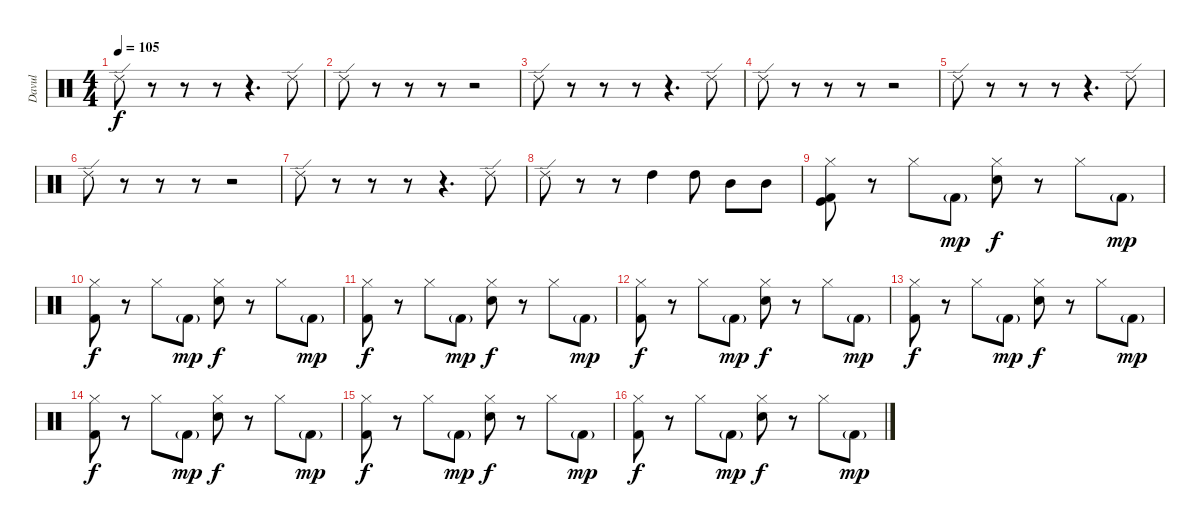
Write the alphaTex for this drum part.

\track ("Davul" "Davul") {instrument percussion}
\staff {score}
\articulation defaults
\ts (4 4)
\tempo 105
\clef neutral
\ks c "Ride (edge) 2".8{dy f}
r.8 r.8 r.8 r.4{d} "Ride (edge) 2".8 |
"Ride (edge) 2".8 r.8 r.8 r.8 r.2 |
"Ride (edge) 2".8 r.8 r.8 r.8 r.4{d} "Ride (edge) 2".8 |
"Ride (edge) 2".8 r.8 r.8 r.8 r.2 |
"Ride (edge) 2".8 r.8 r.8 r.8 r.4{d} "Ride (edge) 2".8 |
"Ride (edge) 2".8 r.8 r.8 r.8 r.2 |
"Ride (edge) 2".8 r.8 r.8 r.8 r.4{d} "Ride (edge) 2".8 |
"Ride (edge) 2".8 r.8 r.8 "High Tom (hit)".4 "High Tom (hit)".8 "Mid Tom (hit)".8 "Mid Tom (hit)".8 |
("Hi-Hat (closed)" "Kick (hit)" "Kick (hit) 2").8 r.8 "Hi-Hat (closed)".8 "Kick (hit) 2"{g}.8{dy mp} ("Hi-Hat (closed)" "Electric Snare (hit)").8{dy f} r.8 "Hi-Hat (closed)".8 "Kick (hit) 2"{g}.8{dy mp} |
("Hi-Hat (closed)" "Kick (hit) 2").8{dy f} r.8 "Hi-Hat (closed)".8 "Kick (hit) 2"{g}.8{dy mp} ("Hi-Hat (closed)" "Electric Snare (hit)").8{dy f} r.8 "Hi-Hat (closed)".8 "Kick (hit) 2"{g}.8{dy mp} |
("Hi-Hat (closed)" "Kick (hit) 2").8{dy f} r.8 "Hi-Hat (closed)".8 "Kick (hit) 2"{g}.8{dy mp} ("Hi-Hat (closed)" "Electric Snare (hit)").8{dy f} r.8 "Hi-Hat (closed)".8 "Kick (hit) 2"{g}.8{dy mp} |
("Hi-Hat (closed)" "Kick (hit) 2").8{dy f} r.8 "Hi-Hat (closed)".8 "Kick (hit) 2"{g}.8{dy mp} ("Hi-Hat (closed)" "Electric Snare (hit)").8{dy f} r.8 "Hi-Hat (closed)".8 "Kick (hit) 2"{g}.8{dy mp} |
("Hi-Hat (closed)" "Kick (hit) 2").8{dy f} r.8 "Hi-Hat (closed)".8 "Kick (hit) 2"{g}.8{dy mp} ("Hi-Hat (closed)" "Electric Snare (hit)").8{dy f} r.8 "Hi-Hat (closed)".8 "Kick (hit) 2"{g}.8{dy mp} |
("Hi-Hat (closed)" "Kick (hit) 2").8{dy f} r.8 "Hi-Hat (closed)".8 "Kick (hit) 2"{g}.8{dy mp} ("Hi-Hat (closed)" "Electric Snare (hit)").8{dy f} r.8 "Hi-Hat (closed)".8 "Kick (hit) 2"{g}.8{dy mp} |
("Hi-Hat (closed)" "Kick (hit) 2").8{dy f} r.8 "Hi-Hat (closed)".8 "Kick (hit) 2"{g}.8{dy mp} ("Hi-Hat (closed)" "Electric Snare (hit)").8{dy f} r.8 "Hi-Hat (closed)".8 "Kick (hit) 2"{g}.8{dy mp} |
("Hi-Hat (closed)" "Kick (hit) 2").8{dy f} r.8 "Hi-Hat (closed)".8 "Kick (hit) 2"{g}.8{dy mp} ("Hi-Hat (closed)" "Electric Snare (hit)").8{dy f} r.8 "Hi-Hat (closed)".8 "Kick (hit) 2"{g}.8{dy mp}
